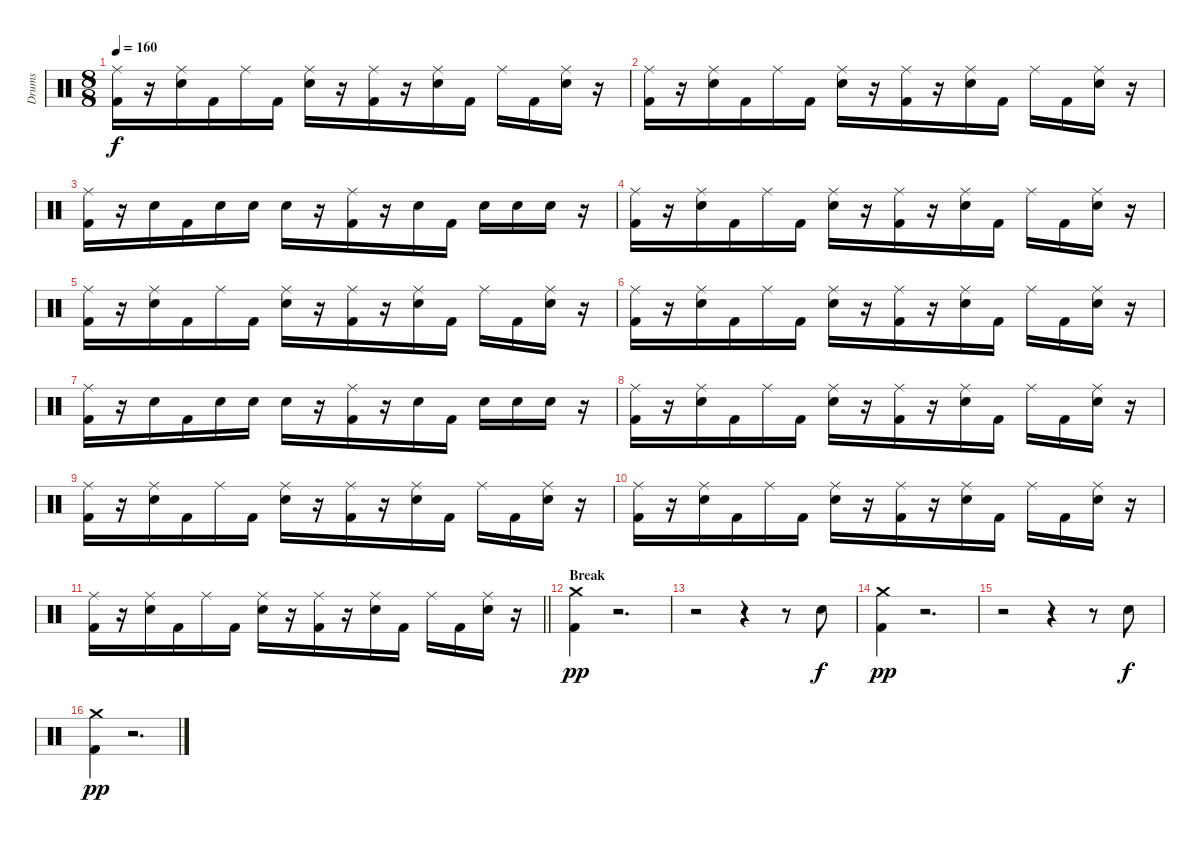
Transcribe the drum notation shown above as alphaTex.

\track ("Drums" "Drums") {instrument percussion}
\staff {score}
\articulation defaults
\ts (8 8)
\tempo 160
\clef neutral
\ks c
("Ride (middle)" "Kick (hit) 2").16{dy f} r.16 ("Ride (middle)" "Snare (hit) 2").16 "Kick (hit) 2".16 "Ride (middle)".16 "Kick (hit) 2".16 ("Ride (middle)" "Snare (hit) 2").16 r.16 ("Ride (middle)" "Kick (hit) 2").16 r.16 ("Ride (middle)" "Snare (hit) 2").16 "Kick (hit) 2".16 "Ride (middle)".16 "Kick (hit) 2".16 ("Ride (middle)" "Snare (hit) 2").16 r.16 |
("Ride (middle)" "Kick (hit) 2").16 r.16 ("Ride (middle)" "Snare (hit) 2").16 "Kick (hit) 2".16 "Ride (middle)".16 "Kick (hit) 2".16 ("Ride (middle)" "Snare (hit) 2").16 r.16 ("Ride (middle)" "Kick (hit) 2").16 r.16 ("Ride (middle)" "Snare (hit) 2").16 "Kick (hit) 2".16 "Ride (middle)".16 "Kick (hit) 2".16 ("Ride (middle)" "Snare (hit) 2").16 r.16 |
("Ride (middle)" "Kick (hit) 2").16 r.16 "Snare (hit) 2".16 "Kick (hit) 2".16 "Snare (hit) 2".16 "Snare (hit) 2".16 "Snare (hit) 2".16 r.16 ("Ride (middle)" "Kick (hit) 2").16 r.16 "Snare (hit) 2".16 "Kick (hit) 2".16 "Snare (hit) 2".16 "Snare (hit) 2".16 "Snare (hit) 2".16 r.16 |
("Ride (middle)" "Kick (hit) 2").16 r.16 ("Ride (middle)" "Snare (hit) 2").16 "Kick (hit) 2".16 "Ride (middle)".16 "Kick (hit) 2".16 ("Ride (middle)" "Snare (hit) 2").16 r.16 ("Ride (middle)" "Kick (hit) 2").16 r.16 ("Ride (middle)" "Snare (hit) 2").16 "Kick (hit) 2".16 "Ride (middle)".16 "Kick (hit) 2".16 ("Ride (middle)" "Snare (hit) 2").16 r.16 |
("Ride (middle)" "Kick (hit) 2").16 r.16 ("Ride (middle)" "Snare (hit) 2").16 "Kick (hit) 2".16 "Ride (middle)".16 "Kick (hit) 2".16 ("Ride (middle)" "Snare (hit) 2").16 r.16 ("Ride (middle)" "Kick (hit) 2").16 r.16 ("Ride (middle)" "Snare (hit) 2").16 "Kick (hit) 2".16 "Ride (middle)".16 "Kick (hit) 2".16 ("Ride (middle)" "Snare (hit) 2").16 r.16 |
("Ride (middle)" "Kick (hit) 2").16 r.16 ("Ride (middle)" "Snare (hit) 2").16 "Kick (hit) 2".16 "Ride (middle)".16 "Kick (hit) 2".16 ("Ride (middle)" "Snare (hit) 2").16 r.16 ("Ride (middle)" "Kick (hit) 2").16 r.16 ("Ride (middle)" "Snare (hit) 2").16 "Kick (hit) 2".16 "Ride (middle)".16 "Kick (hit) 2".16 ("Ride (middle)" "Snare (hit) 2").16 r.16 |
("Ride (middle)" "Kick (hit) 2").16 r.16 "Snare (hit) 2".16 "Kick (hit) 2".16 "Snare (hit) 2".16 "Snare (hit) 2".16 "Snare (hit) 2".16 r.16 ("Ride (middle)" "Kick (hit) 2").16 r.16 "Snare (hit) 2".16 "Kick (hit) 2".16 "Snare (hit) 2".16 "Snare (hit) 2".16 "Snare (hit) 2".16 r.16 |
("Ride (middle)" "Kick (hit) 2").16 r.16 ("Ride (middle)" "Snare (hit) 2").16 "Kick (hit) 2".16 "Ride (middle)".16 "Kick (hit) 2".16 ("Ride (middle)" "Snare (hit) 2").16 r.16 ("Ride (middle)" "Kick (hit) 2").16 r.16 ("Ride (middle)" "Snare (hit) 2").16 "Kick (hit) 2".16 "Ride (middle)".16 "Kick (hit) 2".16 ("Ride (middle)" "Snare (hit) 2").16 r.16 |
("Ride (middle)" "Kick (hit) 2").16 r.16 ("Ride (middle)" "Snare (hit) 2").16 "Kick (hit) 2".16 "Ride (middle)".16 "Kick (hit) 2".16 ("Ride (middle)" "Snare (hit) 2").16 r.16 ("Ride (middle)" "Kick (hit) 2").16 r.16 ("Ride (middle)" "Snare (hit) 2").16 "Kick (hit) 2".16 "Ride (middle)".16 "Kick (hit) 2".16 ("Ride (middle)" "Snare (hit) 2").16 r.16 |
("Ride (middle)" "Kick (hit) 2").16 r.16 ("Ride (middle)" "Snare (hit) 2").16 "Kick (hit) 2".16 "Ride (middle)".16 "Kick (hit) 2".16 ("Ride (middle)" "Snare (hit) 2").16 r.16 ("Ride (middle)" "Kick (hit) 2").16 r.16 ("Ride (middle)" "Snare (hit) 2").16 "Kick (hit) 2".16 "Ride (middle)".16 "Kick (hit) 2".16 ("Ride (middle)" "Snare (hit) 2").16 r.16 |
\barLineRight lightlight
("Ride (middle)" "Kick (hit) 2").16 r.16 ("Ride (middle)" "Snare (hit) 2").16 "Kick (hit) 2".16 "Ride (middle)".16 "Kick (hit) 2".16 ("Ride (middle)" "Snare (hit) 2").16 r.16 ("Ride (middle)" "Kick (hit) 2").16 r.16 ("Ride (middle)" "Snare (hit) 2").16 "Kick (hit) 2".16 "Ride (middle)".16 "Kick (hit) 2".16 ("Ride (middle)" "Snare (hit) 2").16 r.16 |
\section ("" "Break")
("Crash medium (hit)" "Kick (hit) 2").4{dy pp} r.2{d} |
r.2 r.4 r.8 "Snare (hit) 2".8{dy f} |
("Crash medium (hit)" "Kick (hit) 2").4{dy pp} r.2{d} |
r.2 r.4 r.8 "Snare (hit) 2".8{dy f} |
("Crash medium (hit)" "Kick (hit) 2").4{dy pp} r.2{d}
